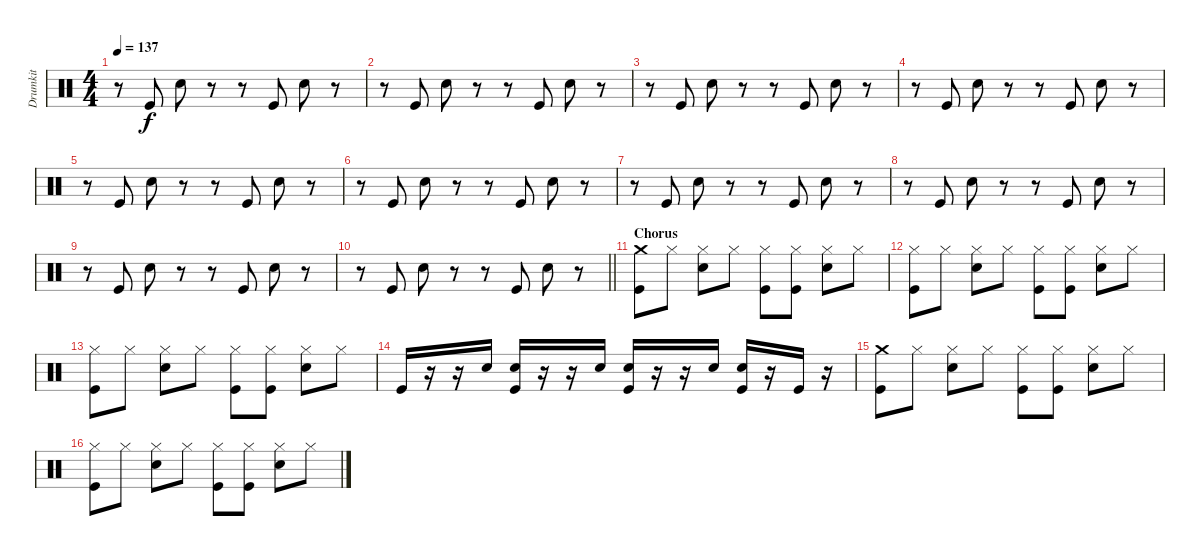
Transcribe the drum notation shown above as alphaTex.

\track ("Drumkit" "Drumkit") {instrument percussion}
\staff {score}
\articulation defaults
\ts (4 4)
\tempo 137
\clef neutral
\ks c
r.8{dy f} "Kick (hit)".8 "Snare (hit) 2".8 r.8 r.8 "Kick (hit)".8 "Snare (hit) 2".8 r.8 |
r.8 "Kick (hit)".8 "Snare (hit) 2".8 r.8 r.8 "Kick (hit)".8 "Snare (hit) 2".8 r.8 |
r.8 "Kick (hit)".8 "Snare (hit) 2".8 r.8 r.8 "Kick (hit)".8 "Snare (hit) 2".8 r.8 |
r.8 "Kick (hit)".8 "Snare (hit) 2".8 r.8 r.8 "Kick (hit)".8 "Snare (hit) 2".8 r.8 |
r.8 "Kick (hit)".8 "Snare (hit) 2".8 r.8 r.8 "Kick (hit)".8 "Snare (hit) 2".8 r.8 |
r.8 "Kick (hit)".8 "Snare (hit) 2".8 r.8 r.8 "Kick (hit)".8 "Snare (hit) 2".8 r.8 |
r.8 "Kick (hit)".8 "Snare (hit) 2".8 r.8 r.8 "Kick (hit)".8 "Snare (hit) 2".8 r.8 |
r.8 "Kick (hit)".8 "Snare (hit) 2".8 r.8 r.8 "Kick (hit)".8 "Snare (hit) 2".8 r.8 |
r.8 "Kick (hit)".8 "Snare (hit) 2".8 r.8 r.8 "Kick (hit)".8 "Snare (hit) 2".8 r.8 |
\barLineRight lightlight
r.8 "Kick (hit)".8 "Snare (hit) 2".8 r.8 r.8 "Kick (hit)".8 "Snare (hit) 2".8 r.8 |
\section ("" "Chorus")
("Crash medium (hit)" "Kick (hit)").8 "Hi-Hat (closed)".8 ("Hi-Hat (closed)" "Snare (hit) 2").8 "Hi-Hat (closed)".8 ("Hi-Hat (closed)" "Kick (hit)").8 ("Hi-Hat (closed)" "Kick (hit)").8 ("Hi-Hat (closed)" "Snare (hit) 2").8 "Hi-Hat (closed)".8 |
("Hi-Hat (closed)" "Kick (hit)").8 "Hi-Hat (closed)".8 ("Hi-Hat (closed)" "Snare (hit) 2").8 "Hi-Hat (closed)".8 ("Hi-Hat (closed)" "Kick (hit)").8 ("Hi-Hat (closed)" "Kick (hit)").8 ("Hi-Hat (closed)" "Snare (hit) 2").8 "Hi-Hat (closed)".8 |
("Hi-Hat (closed)" "Kick (hit)").8 "Hi-Hat (closed)".8 ("Hi-Hat (closed)" "Snare (hit) 2").8 "Hi-Hat (closed)".8 ("Hi-Hat (closed)" "Kick (hit)").8 ("Hi-Hat (closed)" "Kick (hit)").8 ("Hi-Hat (closed)" "Snare (hit) 2").8 "Hi-Hat (closed)".8 |
"Kick (hit)".16 r.16 r.16 "Snare (hit) 2".16 ("Snare (hit) 2" "Kick (hit)").16 r.16 r.16 "Snare (hit) 2".16 ("Snare (hit) 2" "Kick (hit)").16 r.16 r.16 "Snare (hit) 2".16 ("Snare (hit) 2" "Kick (hit)").16 r.16 "Kick (hit)".16 r.16 |
("Crash medium (hit)" "Kick (hit)").8 "Hi-Hat (closed)".8 ("Hi-Hat (closed)" "Snare (hit) 2").8 "Hi-Hat (closed)".8 ("Hi-Hat (closed)" "Kick (hit)").8 ("Hi-Hat (closed)" "Kick (hit)").8 ("Hi-Hat (closed)" "Snare (hit) 2").8 "Hi-Hat (closed)".8 |
("Hi-Hat (closed)" "Kick (hit)").8 "Hi-Hat (closed)".8 ("Hi-Hat (closed)" "Snare (hit) 2").8 "Hi-Hat (closed)".8 ("Hi-Hat (closed)" "Kick (hit)").8 ("Hi-Hat (closed)" "Kick (hit)").8 ("Hi-Hat (closed)" "Snare (hit) 2").8 "Hi-Hat (closed)".8
